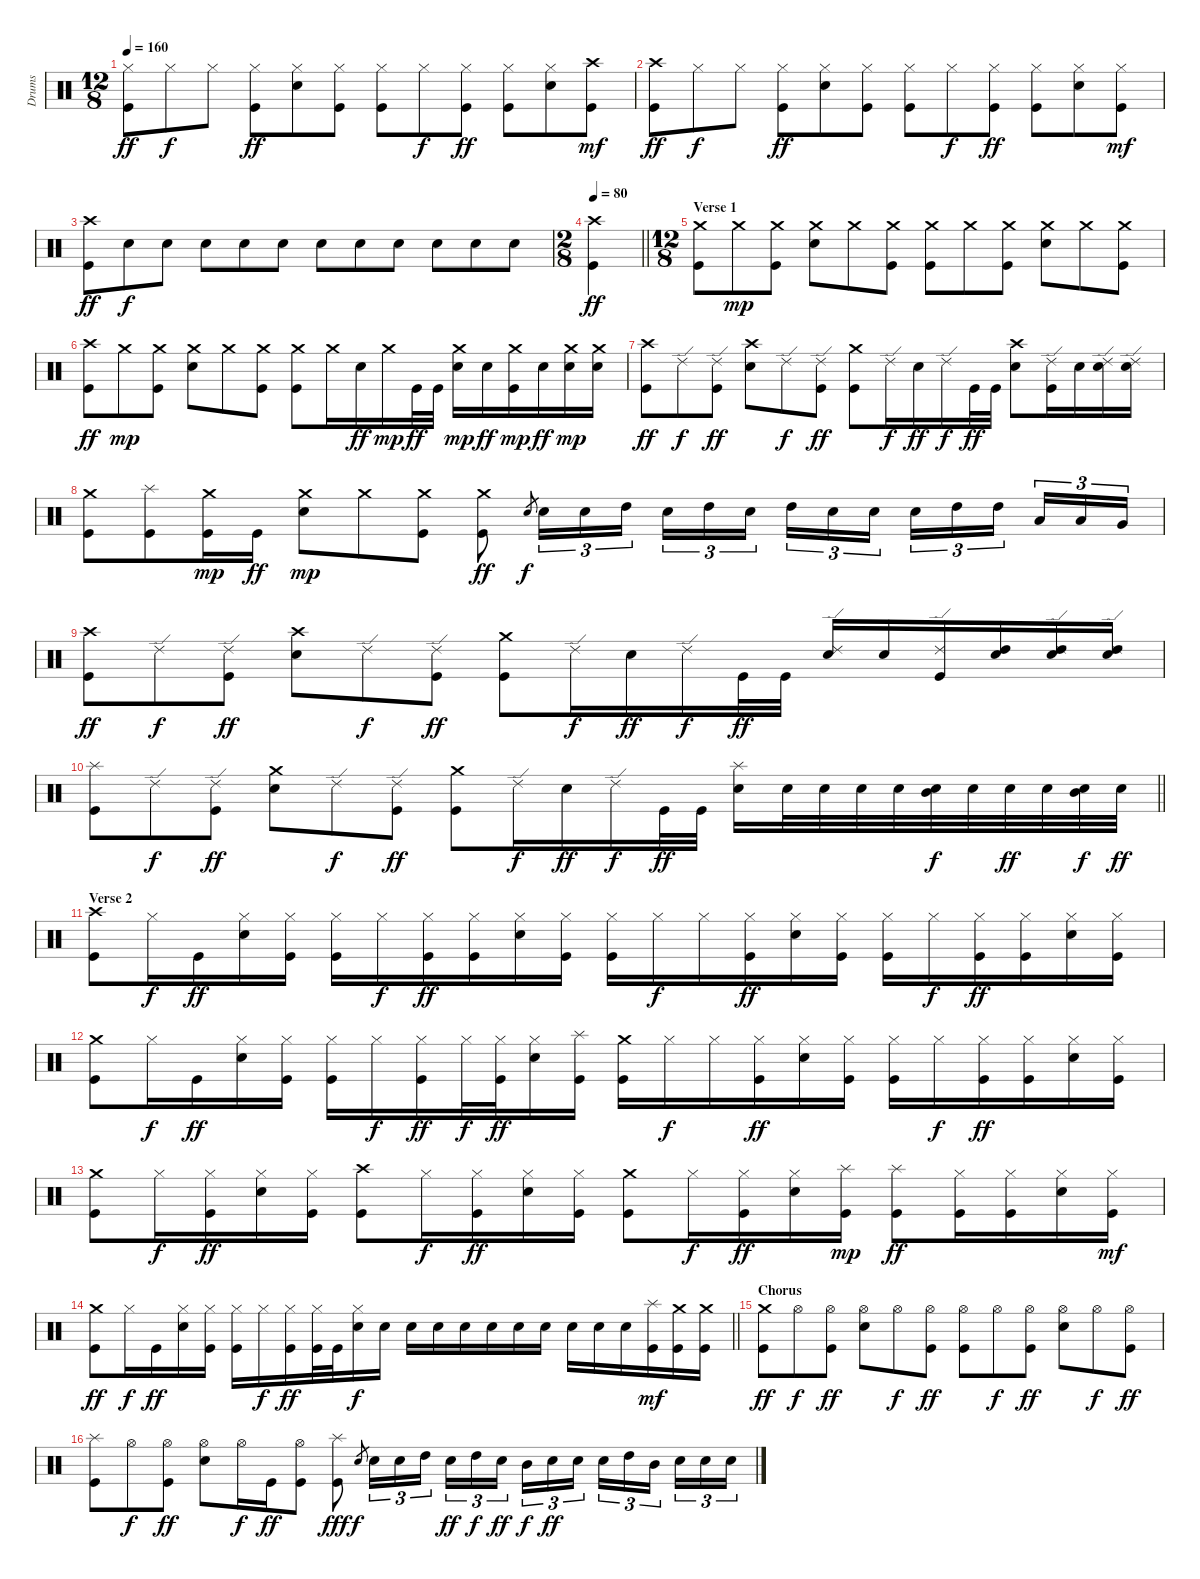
\track ("Drums" "Drums") {instrument percussion}
\staff {score}
\articulation defaults
\ts (12 8)
\tempo 160
\clef neutral
\ks c
("Kick (hit)" "Hi-Hat (closed)").8{dy ff} "Hi-Hat (closed)".8{dy f} "Hi-Hat (closed)".8 ("Kick (hit)" "Hi-Hat (closed)").8{dy ff} ("Electric Snare (hit)" "Hi-Hat (closed)").8 ("Kick (hit)" "Hi-Hat (closed)").8 ("Kick (hit)" "Hi-Hat (closed)").8 "Hi-Hat (closed)".8{dy f} ("Kick (hit)" "Hi-Hat (closed)").8{dy ff} ("Kick (hit)" "Hi-Hat (closed)").8 ("Electric Snare (hit)" "Hi-Hat (closed)").8 ("Kick (hit)" "Crash high (hit)").8{dy mf} |
("Kick (hit)" "Crash high (hit)").8{dy ff} "Hi-Hat (closed)".8{dy f} "Hi-Hat (closed)".8 ("Kick (hit)" "Hi-Hat (closed)").8{dy ff} ("Electric Snare (hit)" "Hi-Hat (closed)").8 ("Kick (hit)" "Hi-Hat (closed)").8 ("Kick (hit)" "Hi-Hat (closed)").8 "Hi-Hat (closed)".8{dy f} ("Kick (hit)" "Hi-Hat (closed)").8{dy ff} ("Kick (hit)" "Hi-Hat (closed)").8 ("Electric Snare (hit)" "Hi-Hat (closed)").8 ("Kick (hit)" "Hi-Hat (closed)").8{dy mf} |
("Kick (hit)" "Crash high (hit)").8{dy ff} "Electric Snare (hit)".8{dy f} "Electric Snare (hit)".8 "Electric Snare (hit)".8 "Electric Snare (hit)".8 "Electric Snare (hit)".8 "Electric Snare (hit)".8 "Electric Snare (hit)".8 "Electric Snare (hit)".8 "Electric Snare (hit)".8 "Electric Snare (hit)".8 "Electric Snare (hit)".8 |
\ts (2 8)
\tempo 80
\barLineRight lightlight
("Kick (hit)" "Crash high (hit)").4{dy ff} |
\ts (12 8)
\section ("" "Verse 1")
("Kick (hit)" "Crash medium (hit)").8 "Crash medium (hit)".8{dy mp} ("Kick (hit)" "Crash medium (hit)").8 ("Electric Snare (hit)" "Crash medium (hit)").8 "Crash medium (hit)".8 ("Kick (hit)" "Crash medium (hit)").8 ("Kick (hit)" "Crash medium (hit)").8 "Crash medium (hit)".8 ("Kick (hit)" "Crash medium (hit)").8 ("Electric Snare (hit)" "Crash medium (hit)").8 "Crash medium (hit)".8 ("Kick (hit)" "Crash medium (hit)").8 |
("Kick (hit)" "Crash high (hit)").8{dy ff} "Crash medium (hit)".8{dy mp} ("Kick (hit)" "Crash medium (hit)").8 ("Electric Snare (hit)" "Crash medium (hit)").8 "Crash medium (hit)".8 ("Kick (hit)" "Crash medium (hit)").8 ("Kick (hit)" "Crash medium (hit)").8 "Crash medium (hit)".16 "Electric Snare (hit)".16{dy ff} "Crash medium (hit)".16{dy mp} "Kick (hit)".32{dy ff} "Kick (hit)".32 ("Electric Snare (hit)" "Crash medium (hit)").16{dy mp} "Electric Snare (hit)".16{dy ff} ("Kick (hit)" "Crash medium (hit)").16{dy mp} "Electric Snare (hit)".16{dy ff} ("Electric Snare (hit)" "Crash medium (hit)").16{dy mp} ("Electric Snare (hit)" "Crash medium (hit)").16 |
("Kick (hit)" "Crash high (hit)").8{dy ff} "Ride (edge) 2".8{dy f} ("Kick (hit)" "Ride (edge) 2").8{dy ff} ("Electric Snare (hit)" "Crash high (hit)").8 "Ride (edge) 2".8{dy f} ("Kick (hit)" "Ride (edge) 2").8{dy ff} ("Kick (hit)" "Crash medium (hit)").8 "Ride (edge) 2".16{dy f} "Electric Snare (hit)".16{dy ff} "Ride (edge) 2".16{dy f} "Kick (hit)".32{dy ff} "Kick (hit)".32 ("Electric Snare (hit)" "Crash high (hit)").8 ("Kick (hit)" "Ride (edge) 2").16 "Electric Snare (hit)".16 ("Electric Snare (hit)" "Ride (edge) 2").16 ("Electric Snare (hit)" "Ride (edge) 2").16 |
("Kick (hit)" "Crash medium (hit)").8 ("Kick (hit)" "Splash (hit)").8 ("Kick (hit)" "Crash medium (hit)").16{dy mp} "Kick (hit)".16{dy ff} ("Electric Snare (hit)" "Crash medium (hit)").8{dy mp} "Crash medium (hit)".8 ("Kick (hit)" "Crash medium (hit)").8 ("Kick (hit)" "Crash medium (hit)").8{dy ff} "Electric Snare (hit)".8{gr dy f} "Electric Snare (hit)".16{tu (3 2)} "Electric Snare (hit)".16{tu (3 2)} "High Tom (hit)".16{tu (3 2) beam splitsecondary} "Electric Snare (hit)".16{tu (3 2)} "High Tom (hit)".16{tu (3 2)} "Electric Snare (hit)".16{tu (3 2)} "High Tom (hit)".16{tu (3 2)} "Electric Snare (hit)".16{tu (3 2)} "Electric Snare (hit)".16{tu (3 2) beam splitsecondary} "Electric Snare (hit)".16{tu (3 2)} "High Tom (hit)".16{tu (3 2)} "High Tom (hit)".16{tu (3 2) beam splitsecondary} "Low Tom (hit)".16{tu (3 2)} "Low Tom (hit)".16{tu (3 2)} "Very Low Tom (hit)".16{tu (3 2)} |
("Kick (hit)" "Crash high (hit)").8{dy ff} "Ride (edge) 2".8{dy f} ("Kick (hit)" "Ride (edge) 2").8{dy ff} ("Electric Snare (hit)" "Crash high (hit)").8 "Ride (edge) 2".8{dy f} ("Kick (hit)" "Ride (edge) 2").8{dy ff} ("Kick (hit)" "Crash medium (hit)").8 "Ride (edge) 2".16{dy f} "Electric Snare (hit)".16{dy ff} "Ride (edge) 2".16{dy f} "Kick (hit)".32{dy ff} "Kick (hit)".32 ("Electric Snare (hit)" "Ride (edge) 2").16 "Electric Snare (hit)".16 ("Kick (hit)" "Ride (edge) 2").16 ("Electric Snare (hit)" "High Tom (hit)").16 ("Electric Snare (hit)" "High Tom (hit)" "Ride (edge) 2").16 ("Electric Snare (hit)" "High Tom (hit)" "Ride (edge) 2").16 |
\barLineRight lightlight
("Kick (hit)" "Splash (hit)").8 "Ride (edge) 2".8{dy f} ("Kick (hit)" "Ride (edge) 2").8{dy ff} ("Electric Snare (hit)" "Crash medium (hit)").8 "Ride (edge) 2".8{dy f} ("Kick (hit)" "Ride (edge) 2").8{dy ff} ("Kick (hit)" "Crash medium (hit)").8 "Ride (edge) 2".16{dy f} "Electric Snare (hit)".16{dy ff} "Ride (edge) 2".16{dy f} "Kick (hit)".32{dy ff} "Kick (hit)".32 ("Electric Snare (hit)" "Splash (hit)").16 "Electric Snare (hit)".32 "Electric Snare (hit)".32 "Electric Snare (hit)".32 "Electric Snare (hit)".32 ("Electric Snare (hit)" "Mid Tom (hit)").32{dy f} "Electric Snare (hit)".32 "Electric Snare (hit)".32{dy ff} "Electric Snare (hit)".32 ("Electric Snare (hit)" "Mid Tom (hit)").32{dy f} "Electric Snare (hit)".32{dy ff} |
\section ("" "Verse 2")
("Kick (hit)" "Crash high (hit)").8 "Hi-Hat (closed)".16{dy f} "Kick (hit)".16{dy ff} ("Electric Snare (hit)" "Hi-Hat (closed)").16 ("Kick (hit)" "Hi-Hat (closed)").16 ("Kick (hit)" "Hi-Hat (closed)").16 "Hi-Hat (closed)".16{dy f} ("Kick (hit)" "Hi-Hat (closed)").16{dy ff} ("Kick (hit)" "Hi-Hat (closed)").16 ("Electric Snare (hit)" "Hi-Hat (closed)").16 ("Kick (hit)" "Hi-Hat (closed)").16 ("Kick (hit)" "Hi-Hat (closed)").16 "Hi-Hat (closed)".16{dy f} "Hi-Hat (closed)".16 ("Kick (hit)" "Hi-Hat (closed)").16{dy ff} ("Electric Snare (hit)" "Hi-Hat (closed)").16 ("Kick (hit)" "Hi-Hat (closed)").16 ("Kick (hit)" "Hi-Hat (closed)").16 "Hi-Hat (closed)".16{dy f} ("Kick (hit)" "Hi-Hat (closed)").16{dy ff} ("Kick (hit)" "Hi-Hat (closed)").16 ("Electric Snare (hit)" "Hi-Hat (closed)").16 ("Kick (hit)" "Hi-Hat (closed)").16 |
("Kick (hit)" "Crash medium (hit)").8 "Hi-Hat (closed)".16{dy f} "Kick (hit)".16{dy ff} ("Electric Snare (hit)" "Hi-Hat (closed)").16 ("Kick (hit)" "Hi-Hat (closed)").16 ("Kick (hit)" "Hi-Hat (closed)").16 "Hi-Hat (closed)".16{dy f} ("Kick (hit)" "Hi-Hat (closed)").16{dy ff} "Hi-Hat (closed)".32{dy f} ("Kick (hit)" "Hi-Hat (closed)").32{dy ff} ("Electric Snare (hit)" "Hi-Hat (closed)").16 ("Kick (hit)" "Splash (hit)").16 ("Kick (hit)" "Crash medium (hit)").16 "Hi-Hat (closed)".16{dy f} "Hi-Hat (closed)".16 ("Kick (hit)" "Hi-Hat (closed)").16{dy ff} ("Electric Snare (hit)" "Hi-Hat (closed)").16 ("Kick (hit)" "Hi-Hat (closed)").16 ("Kick (hit)" "Hi-Hat (closed)").16 "Hi-Hat (closed)".16{dy f} ("Kick (hit)" "Hi-Hat (closed)").16{dy ff} ("Kick (hit)" "Hi-Hat (closed)").16 ("Electric Snare (hit)" "Hi-Hat (closed)").16 ("Kick (hit)" "Hi-Hat (closed)").16 |
("Kick (hit)" "Crash medium (hit)").8 "Hi-Hat (closed)".16{dy f} ("Kick (hit)" "Hi-Hat (closed)").16{dy ff} ("Electric Snare (hit)" "Hi-Hat (closed)").16 ("Kick (hit)" "Hi-Hat (closed)").16 ("Kick (hit)" "Crash high (hit)").8 "Hi-Hat (closed)".16{dy f} ("Kick (hit)" "Hi-Hat (closed)").16{dy ff} ("Electric Snare (hit)" "Hi-Hat (closed)").16 ("Kick (hit)" "Hi-Hat (closed)").16 ("Kick (hit)" "Crash medium (hit)").8 "Hi-Hat (closed)".16{dy f} ("Kick (hit)" "Hi-Hat (closed)").16{dy ff} ("Electric Snare (hit)" "Hi-Hat (closed)").16 ("Kick (hit)" "Splash (hit)").16{dy mp} ("Kick (hit)" "Splash (hit)").8{dy ff} ("Kick (hit)" "Hi-Hat (closed)").16 ("Kick (hit)" "Hi-Hat (closed)").16 ("Electric Snare (hit)" "Hi-Hat (closed)").16 ("Kick (hit)" "Hi-Hat (closed)").16{dy mf} |
\barLineRight lightlight
("Kick (hit)" "Crash medium (hit)").8{dy ff} "Hi-Hat (closed)".16{dy f} "Kick (hit)".16{dy ff} ("Electric Snare (hit)" "Hi-Hat (closed)").16 ("Kick (hit)" "Hi-Hat (closed)").16 ("Kick (hit)" "Hi-Hat (closed)").16 "Hi-Hat (closed)".16{dy f} ("Kick (hit)" "Hi-Hat (closed)").16{dy ff} ("Kick (hit)" "Hi-Hat (closed)").32 "Kick (hit)".32 ("Electric Snare (hit)" "Hi-Hat (closed)").16{dy f} "Electric Snare (hit)".16 "Electric Snare (hit)".16 "Electric Snare (hit)".16 "Electric Snare (hit)".16 "Electric Snare (hit)".16 "Electric Snare (hit)".16 "Electric Snare (hit)".16 "Electric Snare (hit)".16 "Electric Snare (hit)".16 "Electric Snare (hit)".16 ("Kick (hit)" "Splash (hit)").16{dy mf} ("Kick (hit)" "Crash medium (hit)").16 ("Kick (hit)" "Crash medium (hit)").16 |
\section ("" "Chorus")
("Kick (hit)" "Crash medium (hit)").8{dy ff} "Hi-Hat (open)".8{dy f} ("Kick (hit)" "Hi-Hat (open)").8{dy ff} ("Electric Snare (hit)" "Hi-Hat (open)").8 "Hi-Hat (open)".8{dy f} ("Kick (hit)" "Hi-Hat (open)").8{dy ff} ("Kick (hit)" "Hi-Hat (open)").8 "Hi-Hat (open)".8{dy f} ("Kick (hit)" "Hi-Hat (open)").8{dy ff} ("Electric Snare (hit)" "Hi-Hat (open)").8 "Hi-Hat (open)".8{dy f} ("Kick (hit)" "Hi-Hat (open)").8{dy ff} |
("Kick (hit)" "Splash (hit)").8 "Hi-Hat (open)".8{dy f} ("Kick (hit)" "Hi-Hat (open)").8{dy ff} ("Electric Snare (hit)" "Hi-Hat (open)").8 "Hi-Hat (open)".16{dy f} "Kick (hit)".16{dy ff} ("Kick (hit)" "Hi-Hat (open)").8 ("Kick (hit)" "Splash (hit)").8{dy fff} "Electric Snare (hit)".8{gr dy f} "Electric Snare (hit)".16{tu (3 2)} "Electric Snare (hit)".16{tu (3 2)} "High Tom (hit)".16{tu (3 2) beam splitsecondary} "Electric Snare (hit)".16{tu (3 2) dy ff} "High Tom (hit)".16{tu (3 2) dy f} "Electric Snare (hit)".16{tu (3 2) dy ff} "Mid Tom (hit)".16{tu (3 2) dy f} "Electric Snare (hit)".16{tu (3 2) dy ff} "Electric Snare (hit)".16{tu (3 2) beam splitsecondary} "Electric Snare (hit)".16{tu (3 2)} "High Tom (hit)".16{tu (3 2)} "Mid Tom (hit)".16{tu (3 2) beam splitsecondary} "Electric Snare (hit)".16{tu (3 2)} "Electric Snare (hit)".16{tu (3 2)} "Electric Snare (hit)".16{tu (3 2)}
